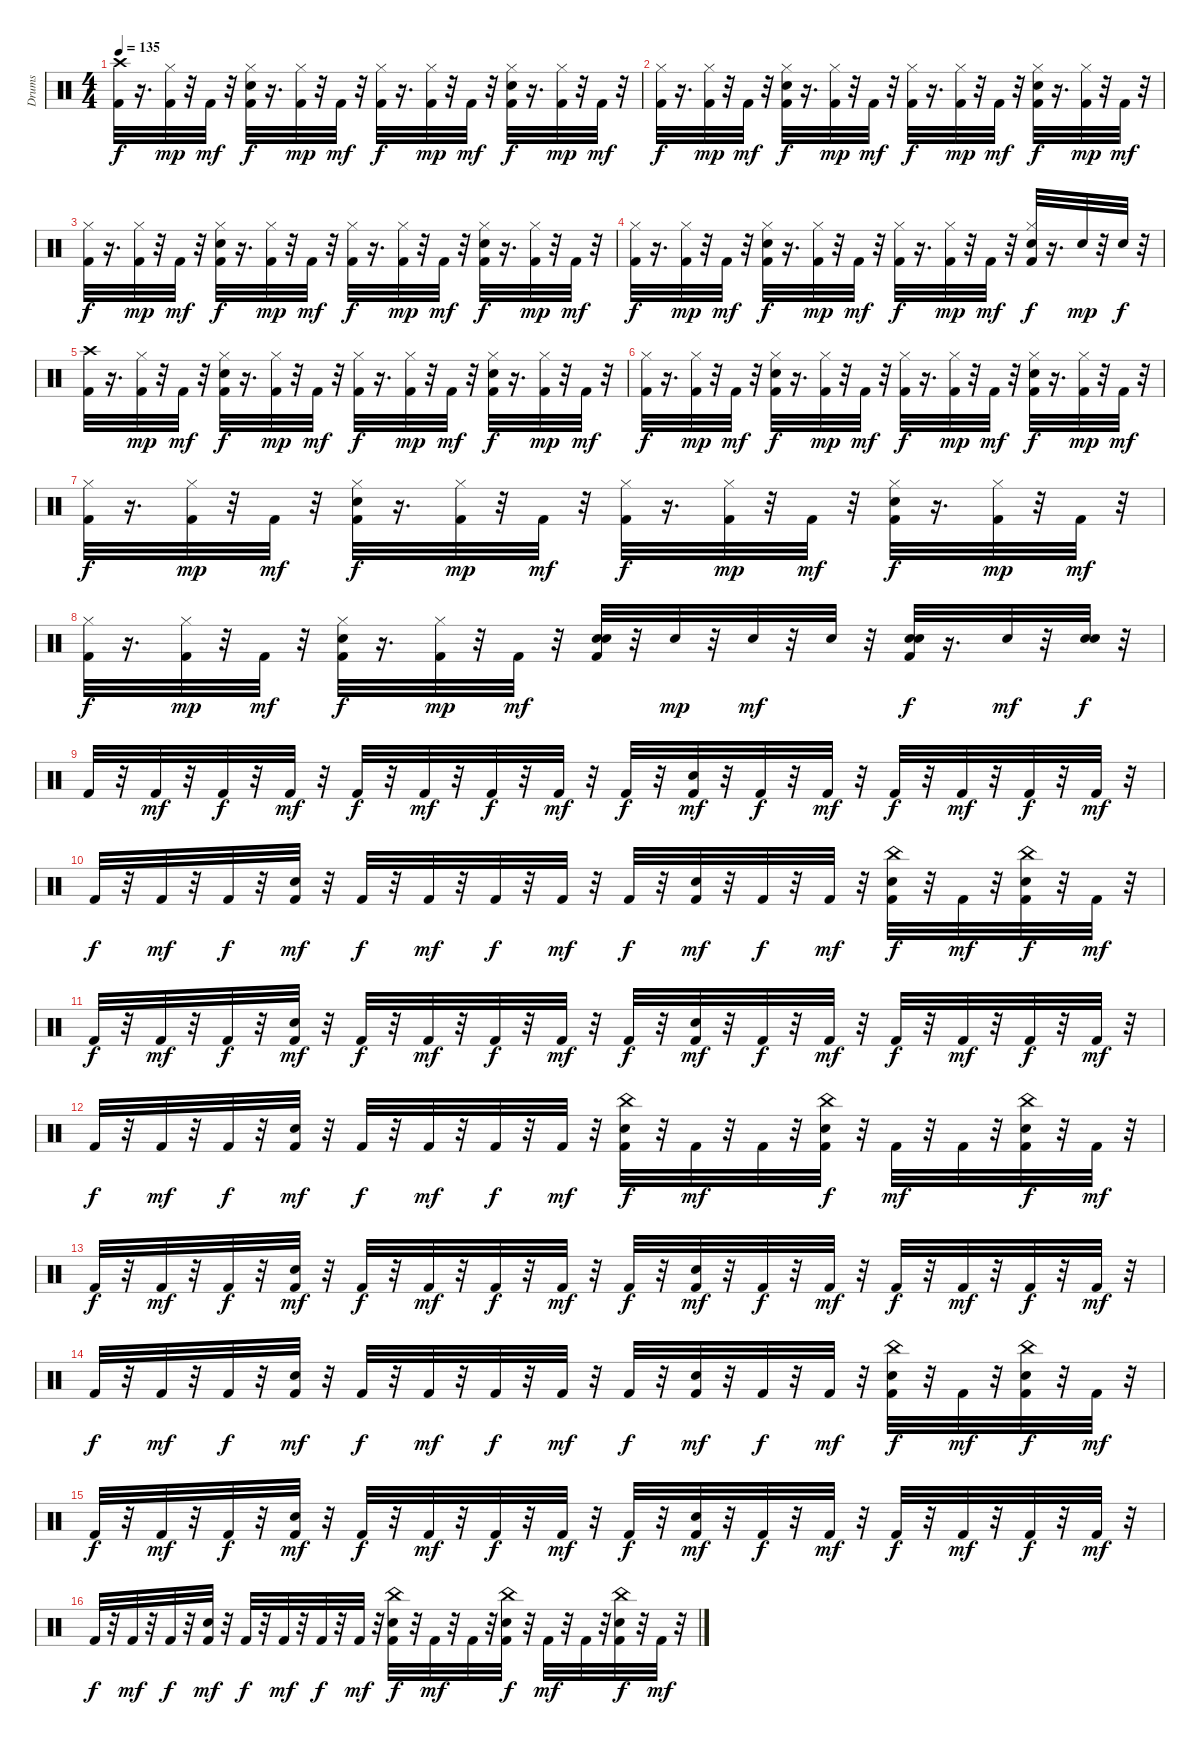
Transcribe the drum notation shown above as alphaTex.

\track ("Drums" "Drums") {instrument percussion}
\staff {score}
\articulation defaults
\ts (4 4)
\tempo 135
\clef neutral
\ks c
("Crash high (hit)" "Kick (hit) 2").32{dy f} r.16{d} ("Hi-Hat (closed)" "Kick (hit) 2").32{dy mp} r.32 "Kick (hit) 2".32{dy mf} r.32 ("Hi-Hat (closed)" "Snare (hit) 2" "Kick (hit) 2").32{dy f} r.16{d} ("Kick (hit) 2" "Hi-Hat (closed)").32{dy mp} r.32 "Kick (hit) 2".32{dy mf} r.32 ("Kick (hit) 2" "Hi-Hat (closed)").32{dy f} r.16{d} ("Kick (hit) 2" "Hi-Hat (closed)").32{dy mp} r.32 "Kick (hit) 2".32{dy mf} r.32 ("Hi-Hat (closed)" "Snare (hit) 2" "Kick (hit) 2").32{dy f} r.16{d} ("Kick (hit) 2" "Hi-Hat (closed)").32{dy mp} r.32 "Kick (hit) 2".32{dy mf} r.32 |
("Kick (hit) 2" "Hi-Hat (closed)").32{dy f} r.16{d} ("Kick (hit) 2" "Hi-Hat (closed)").32{dy mp} r.32 "Kick (hit) 2".32{dy mf} r.32 ("Hi-Hat (closed)" "Snare (hit) 2" "Kick (hit) 2").32{dy f} r.16{d} ("Kick (hit) 2" "Hi-Hat (closed)").32{dy mp} r.32 "Kick (hit) 2".32{dy mf} r.32 ("Kick (hit) 2" "Hi-Hat (closed)").32{dy f} r.16{d} ("Kick (hit) 2" "Hi-Hat (closed)").32{dy mp} r.32 "Kick (hit) 2".32{dy mf} r.32 ("Hi-Hat (closed)" "Snare (hit) 2" "Kick (hit) 2").32{dy f} r.16{d} ("Kick (hit) 2" "Hi-Hat (closed)").32{dy mp} r.32 "Kick (hit) 2".32{dy mf} r.32 |
("Kick (hit) 2" "Hi-Hat (closed)").32{dy f} r.16{d} ("Kick (hit) 2" "Hi-Hat (closed)").32{dy mp} r.32 "Kick (hit) 2".32{dy mf} r.32 ("Hi-Hat (closed)" "Snare (hit) 2" "Kick (hit) 2").32{dy f} r.16{d} ("Kick (hit) 2" "Hi-Hat (closed)").32{dy mp} r.32 "Kick (hit) 2".32{dy mf} r.32 ("Kick (hit) 2" "Hi-Hat (closed)").32{dy f} r.16{d} ("Kick (hit) 2" "Hi-Hat (closed)").32{dy mp} r.32 "Kick (hit) 2".32{dy mf} r.32 ("Hi-Hat (closed)" "Snare (hit) 2" "Kick (hit) 2").32{dy f} r.16{d} ("Kick (hit) 2" "Hi-Hat (closed)").32{dy mp} r.32 "Kick (hit) 2".32{dy mf} r.32 |
("Kick (hit) 2" "Hi-Hat (closed)").32{dy f} r.16{d} ("Kick (hit) 2" "Hi-Hat (closed)").32{dy mp} r.32 "Kick (hit) 2".32{dy mf} r.32 ("Hi-Hat (closed)" "Snare (hit) 2" "Kick (hit) 2").32{dy f} r.16{d} ("Kick (hit) 2" "Hi-Hat (closed)").32{dy mp} r.32 "Kick (hit) 2".32{dy mf} r.32 ("Kick (hit) 2" "Hi-Hat (closed)").32{dy f} r.16{d} ("Kick (hit) 2" "Hi-Hat (closed)").32{dy mp} r.32 "Kick (hit) 2".32{dy mf} r.32 ("Hi-Hat (closed)" "Snare (hit) 2" "Kick (hit) 2").32{dy f} r.16{d} "Snare (hit) 2".32{dy mp} r.32 "Snare (hit) 2".32{dy f} r.32 |
("Crash high (hit)" "Kick (hit) 2").32 r.16{d} ("Hi-Hat (closed)" "Kick (hit) 2").32{dy mp} r.32 "Kick (hit) 2".32{dy mf} r.32 ("Hi-Hat (closed)" "Snare (hit) 2" "Kick (hit) 2").32{dy f} r.16{d} ("Kick (hit) 2" "Hi-Hat (closed)").32{dy mp} r.32 "Kick (hit) 2".32{dy mf} r.32 ("Kick (hit) 2" "Hi-Hat (closed)").32{dy f} r.16{d} ("Kick (hit) 2" "Hi-Hat (closed)").32{dy mp} r.32 "Kick (hit) 2".32{dy mf} r.32 ("Hi-Hat (closed)" "Snare (hit) 2" "Kick (hit) 2").32{dy f} r.16{d} ("Kick (hit) 2" "Hi-Hat (closed)").32{dy mp} r.32 "Kick (hit) 2".32{dy mf} r.32 |
("Kick (hit) 2" "Hi-Hat (closed)").32{dy f} r.16{d} ("Kick (hit) 2" "Hi-Hat (closed)").32{dy mp} r.32 "Kick (hit) 2".32{dy mf} r.32 ("Hi-Hat (closed)" "Snare (hit) 2" "Kick (hit) 2").32{dy f} r.16{d} ("Kick (hit) 2" "Hi-Hat (closed)").32{dy mp} r.32 "Kick (hit) 2".32{dy mf} r.32 ("Kick (hit) 2" "Hi-Hat (closed)").32{dy f} r.16{d} ("Kick (hit) 2" "Hi-Hat (closed)").32{dy mp} r.32 "Kick (hit) 2".32{dy mf} r.32 ("Hi-Hat (closed)" "Snare (hit) 2" "Kick (hit) 2").32{dy f} r.16{d} ("Kick (hit) 2" "Hi-Hat (closed)").32{dy mp} r.32 "Kick (hit) 2".32{dy mf} r.32 |
("Kick (hit) 2" "Hi-Hat (closed)").32{dy f} r.16{d} ("Kick (hit) 2" "Hi-Hat (closed)").32{dy mp} r.32 "Kick (hit) 2".32{dy mf} r.32 ("Hi-Hat (closed)" "Snare (hit) 2" "Kick (hit) 2").32{dy f} r.16{d} ("Kick (hit) 2" "Hi-Hat (closed)").32{dy mp} r.32 "Kick (hit) 2".32{dy mf} r.32 ("Kick (hit) 2" "Hi-Hat (closed)").32{dy f} r.16{d} ("Kick (hit) 2" "Hi-Hat (closed)").32{dy mp} r.32 "Kick (hit) 2".32{dy mf} r.32 ("Hi-Hat (closed)" "Snare (hit) 2" "Kick (hit) 2").32{dy f} r.16{d} ("Kick (hit) 2" "Hi-Hat (closed)").32{dy mp} r.32 "Kick (hit) 2".32{dy mf} r.32 |
("Kick (hit) 2" "Hi-Hat (closed)").32{dy f} r.16{d} ("Kick (hit) 2" "Hi-Hat (closed)").32{dy mp} r.32 "Kick (hit) 2".32{dy mf} r.32 ("Hi-Hat (closed)" "Snare (hit) 2" "Kick (hit) 2").32{dy f} r.16{d} ("Kick (hit) 2" "Hi-Hat (closed)").32{dy mp} r.32 "Kick (hit) 2".32{dy mf} r.32 ("Snare (hit) 2" "Kick (hit) 2" "Snare (hit) 2").32 r.32 "Snare (hit) 2".32{dy mp} r.32 "Snare (hit) 2".32{dy mf} r.32 "Snare (hit) 2".32 r.32 ("Kick (hit) 2" "Snare (hit) 2" "Snare (hit) 2").32{dy f} r.16{d} "Snare (hit) 2".32{dy mf} r.32 ("Snare (hit) 2" "Snare (hit) 2").32{dy f} r.32 |
"Kick (hit) 2".32 r.32 "Kick (hit) 2".32{dy mf} r.32 "Kick (hit) 2".32{dy f} r.32 "Kick (hit) 2".32{dy mf} r.32 "Kick (hit) 2".32{dy f} r.32 "Kick (hit) 2".32{dy mf} r.32 "Kick (hit) 2".32{dy f} r.32 "Kick (hit) 2".32{dy mf} r.32 "Kick (hit) 2".32{dy f} r.32 ("Snare (hit) 2" "Kick (hit) 2").32{dy mf} r.32 "Kick (hit) 2".32{dy f} r.32 "Kick (hit) 2".32{dy mf} r.32 "Kick (hit) 2".32{dy f} r.32 "Kick (hit) 2".32{dy mf} r.32 "Kick (hit) 2".32{dy f} r.32 "Kick (hit) 2".32{dy mf} r.32 |
"Kick (hit) 2".32{dy f} r.32 "Kick (hit) 2".32{dy mf} r.32 "Kick (hit) 2".32{dy f} r.32 ("Snare (hit) 2" "Kick (hit) 2").32{dy mf} r.32 "Kick (hit) 2".32{dy f} r.32 "Kick (hit) 2".32{dy mf} r.32 "Kick (hit) 2".32{dy f} r.32 "Kick (hit) 2".32{dy mf} r.32 "Kick (hit) 2".32{dy f} r.32 ("Snare (hit) 2" "Kick (hit) 2").32{dy mf} r.32 "Kick (hit) 2".32{dy f} r.32 "Kick (hit) 2".32{dy mf} r.32 ("Kick (hit) 2" "China (hit)" "Snare (hit) 2").32{dy f} r.32 "Kick (hit) 2".32{dy mf} r.32 ("Kick (hit) 2" "China (hit)" "Snare (hit) 2").32{dy f} r.32 "Kick (hit) 2".32{dy mf} r.32 |
"Kick (hit) 2".32{dy f} r.32 "Kick (hit) 2".32{dy mf} r.32 "Kick (hit) 2".32{dy f} r.32 ("Snare (hit) 2" "Kick (hit) 2").32{dy mf} r.32 "Kick (hit) 2".32{dy f} r.32 "Kick (hit) 2".32{dy mf} r.32 "Kick (hit) 2".32{dy f} r.32 "Kick (hit) 2".32{dy mf} r.32 "Kick (hit) 2".32{dy f} r.32 ("Snare (hit) 2" "Kick (hit) 2").32{dy mf} r.32 "Kick (hit) 2".32{dy f} r.32 "Kick (hit) 2".32{dy mf} r.32 "Kick (hit) 2".32{dy f} r.32 "Kick (hit) 2".32{dy mf} r.32 "Kick (hit) 2".32{dy f} r.32 "Kick (hit) 2".32{dy mf} r.32 |
"Kick (hit) 2".32{dy f} r.32 "Kick (hit) 2".32{dy mf} r.32 "Kick (hit) 2".32{dy f} r.32 ("Snare (hit) 2" "Kick (hit) 2").32{dy mf} r.32 "Kick (hit) 2".32{dy f} r.32 "Kick (hit) 2".32{dy mf} r.32 "Kick (hit) 2".32{dy f} r.32 "Kick (hit) 2".32{dy mf} r.32 ("China (hit)" "Kick (hit) 2" "Snare (hit) 2").32{dy f} r.32 "Kick (hit) 2".32{dy mf} r.32 "Kick (hit) 2".32 r.32 ("China (hit)" "Kick (hit) 2" "Snare (hit) 2").32{dy f} r.32 "Kick (hit) 2".32{dy mf} r.32 "Kick (hit) 2".32 r.32 ("China (hit)" "Kick (hit) 2" "Snare (hit) 2").32{dy f} r.32 "Kick (hit) 2".32{dy mf} r.32 |
"Kick (hit) 2".32{dy f} r.32 "Kick (hit) 2".32{dy mf} r.32 "Kick (hit) 2".32{dy f} r.32 ("Snare (hit) 2" "Kick (hit) 2").32{dy mf} r.32 "Kick (hit) 2".32{dy f} r.32 "Kick (hit) 2".32{dy mf} r.32 "Kick (hit) 2".32{dy f} r.32 "Kick (hit) 2".32{dy mf} r.32 "Kick (hit) 2".32{dy f} r.32 ("Snare (hit) 2" "Kick (hit) 2").32{dy mf} r.32 "Kick (hit) 2".32{dy f} r.32 "Kick (hit) 2".32{dy mf} r.32 "Kick (hit) 2".32{dy f} r.32 "Kick (hit) 2".32{dy mf} r.32 "Kick (hit) 2".32{dy f} r.32 "Kick (hit) 2".32{dy mf} r.32 |
"Kick (hit) 2".32{dy f} r.32 "Kick (hit) 2".32{dy mf} r.32 "Kick (hit) 2".32{dy f} r.32 ("Snare (hit) 2" "Kick (hit) 2").32{dy mf} r.32 "Kick (hit) 2".32{dy f} r.32 "Kick (hit) 2".32{dy mf} r.32 "Kick (hit) 2".32{dy f} r.32 "Kick (hit) 2".32{dy mf} r.32 "Kick (hit) 2".32{dy f} r.32 ("Snare (hit) 2" "Kick (hit) 2").32{dy mf} r.32 "Kick (hit) 2".32{dy f} r.32 "Kick (hit) 2".32{dy mf} r.32 ("Kick (hit) 2" "China (hit)" "Snare (hit) 2").32{dy f} r.32 "Kick (hit) 2".32{dy mf} r.32 ("Kick (hit) 2" "China (hit)" "Snare (hit) 2").32{dy f} r.32 "Kick (hit) 2".32{dy mf} r.32 |
"Kick (hit) 2".32{dy f} r.32 "Kick (hit) 2".32{dy mf} r.32 "Kick (hit) 2".32{dy f} r.32 ("Snare (hit) 2" "Kick (hit) 2").32{dy mf} r.32 "Kick (hit) 2".32{dy f} r.32 "Kick (hit) 2".32{dy mf} r.32 "Kick (hit) 2".32{dy f} r.32 "Kick (hit) 2".32{dy mf} r.32 "Kick (hit) 2".32{dy f} r.32 ("Snare (hit) 2" "Kick (hit) 2").32{dy mf} r.32 "Kick (hit) 2".32{dy f} r.32 "Kick (hit) 2".32{dy mf} r.32 "Kick (hit) 2".32{dy f} r.32 "Kick (hit) 2".32{dy mf} r.32 "Kick (hit) 2".32{dy f} r.32 "Kick (hit) 2".32{dy mf} r.32 |
"Kick (hit) 2".32{dy f} r.32 "Kick (hit) 2".32{dy mf} r.32 "Kick (hit) 2".32{dy f} r.32 ("Snare (hit) 2" "Kick (hit) 2").32{dy mf} r.32 "Kick (hit) 2".32{dy f} r.32 "Kick (hit) 2".32{dy mf} r.32 "Kick (hit) 2".32{dy f} r.32 "Kick (hit) 2".32{dy mf} r.32 ("Kick (hit) 2" "Snare (hit) 2" "China (hit)").32{dy f} r.32 "Kick (hit) 2".32{dy mf} r.32 "Kick (hit) 2".32 r.32 ("Kick (hit) 2" "Snare (hit) 2" "China (hit)").32{dy f} r.32 "Kick (hit) 2".32{dy mf} r.32 "Kick (hit) 2".32 r.32 ("Kick (hit) 2" "Snare (hit) 2" "China (hit)").32{dy f} r.32 "Kick (hit) 2".32{dy mf} r.32
